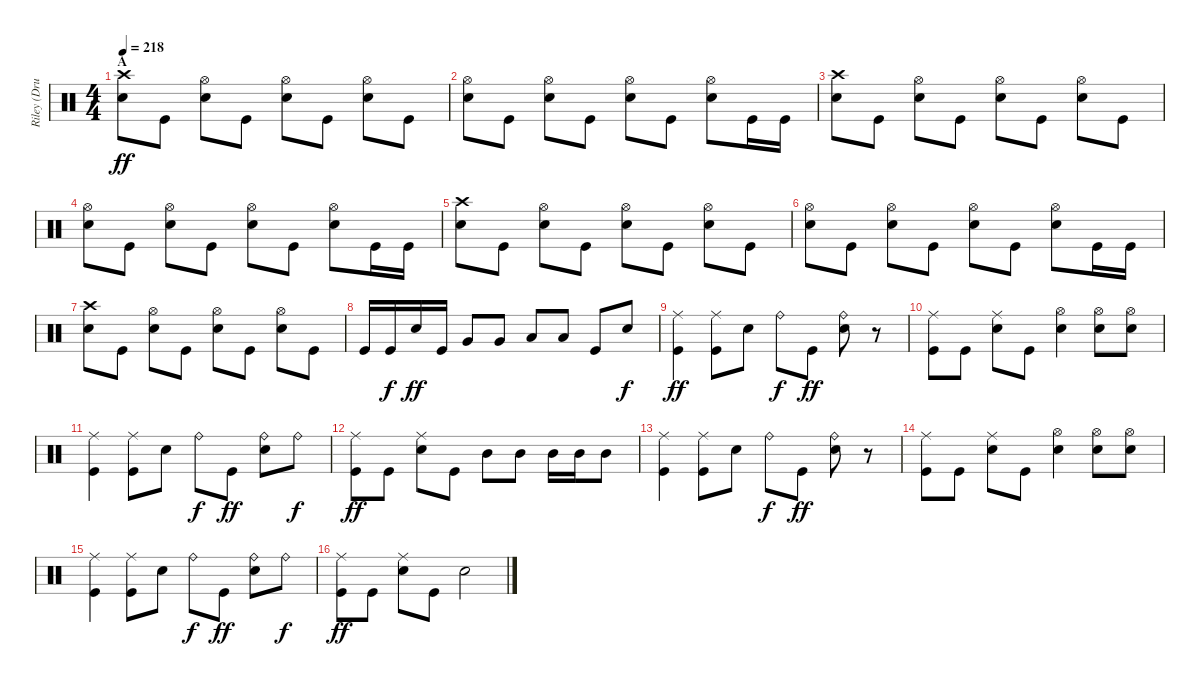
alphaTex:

\track ("Riley (Drums)" "Riley (Dru") {instrument percussion}
\staff {score}
\articulation defaults
\ts (4 4)
\section ("" "A")
\tempo 218
\clef neutral
\ks c
("Crash high (hit)" "Electric Snare (hit)").8{dy ff} "Kick (hit)".8 ("Hi-Hat (open)" "Electric Snare (hit)").8 "Kick (hit)".8 ("Hi-Hat (open)" "Electric Snare (hit)").8 "Kick (hit)".8 ("Hi-Hat (open)" "Electric Snare (hit)").8 "Kick (hit)".8 |
("Hi-Hat (open)" "Electric Snare (hit)").8 "Kick (hit)".8 ("Hi-Hat (open)" "Electric Snare (hit)").8 "Kick (hit)".8 ("Hi-Hat (open)" "Electric Snare (hit)").8 "Kick (hit)".8 ("Hi-Hat (open)" "Electric Snare (hit)").8 "Kick (hit)".16 "Kick (hit)".16 |
("Crash high (hit)" "Electric Snare (hit)").8 "Kick (hit)".8 ("Hi-Hat (open)" "Electric Snare (hit)").8 "Kick (hit)".8 ("Hi-Hat (open)" "Electric Snare (hit)").8 "Kick (hit)".8 ("Hi-Hat (open)" "Electric Snare (hit)").8 "Kick (hit)".8 |
("Hi-Hat (open)" "Electric Snare (hit)").8 "Kick (hit)".8 ("Hi-Hat (open)" "Electric Snare (hit)").8 "Kick (hit)".8 ("Hi-Hat (open)" "Electric Snare (hit)").8 "Kick (hit)".8 ("Hi-Hat (open)" "Electric Snare (hit)").8 "Kick (hit)".16 "Kick (hit)".16 |
("Crash high (hit)" "Electric Snare (hit)").8 "Kick (hit)".8 ("Hi-Hat (open)" "Electric Snare (hit)").8 "Kick (hit)".8 ("Hi-Hat (open)" "Electric Snare (hit)").8 "Kick (hit)".8 ("Hi-Hat (open)" "Electric Snare (hit)").8 "Kick (hit)".8 |
("Hi-Hat (open)" "Electric Snare (hit)").8 "Kick (hit)".8 ("Hi-Hat (open)" "Electric Snare (hit)").8 "Kick (hit)".8 ("Hi-Hat (open)" "Electric Snare (hit)").8 "Kick (hit)".8 ("Hi-Hat (open)" "Electric Snare (hit)").8 "Kick (hit)".16 "Kick (hit)".16 |
("Crash high (hit)" "Electric Snare (hit)").8 "Kick (hit)".8 ("Hi-Hat (open)" "Electric Snare (hit)").8 "Kick (hit)".8 ("Hi-Hat (open)" "Electric Snare (hit)").8 "Kick (hit)".8 ("Hi-Hat (open)" "Electric Snare (hit)").8 "Kick (hit)".8 |
"Kick (hit)".16 "Kick (hit)".16{dy f} "Electric Snare (hit)".16{dy ff} "Kick (hit)".16 "Very Low Tom (hit)".8 "Very Low Tom (hit)".8 "Low Floor Tom (hit)".8 "Low Floor Tom (hit)".8 "Kick (hit)".8 "Electric Snare (hit)".8{dy f} |
("Ride (middle)" "Kick (hit)").4{dy ff} ("Ride (middle)" "Kick (hit)").8 "Electric Snare (hit)".8 "Ride (bell)".8{dy f} "Kick (hit)".8{dy ff} ("Ride (bell)" "Electric Snare (hit)").8 r.8 |
("Ride (middle)" "Kick (hit)").8 "Kick (hit)".8 ("Ride (middle)" "Electric Snare (hit)").8 "Kick (hit)".8 ("Hi-Hat (open)" "Electric Snare (hit)").4 ("Hi-Hat (open)" "Electric Snare (hit)").8 ("Hi-Hat (open)" "Electric Snare (hit)").8 |
("Ride (middle)" "Kick (hit)").4 ("Ride (middle)" "Kick (hit)").8 "Electric Snare (hit)".8 "Ride (bell)".8{dy f} "Kick (hit)".8{dy ff} ("Ride (bell)" "Electric Snare (hit)").8 "Ride (bell)".8{dy f} |
("Ride (middle)" "Kick (hit)").8{dy ff} "Kick (hit)".8 ("Ride (middle)" "Electric Snare (hit)").8 "Kick (hit)".8 "Mid Tom (hit)".8 "Mid Tom (hit)".8 "Mid Tom (hit)".16 "Mid Tom (hit)".16 "Mid Tom (hit)".8 |
("Ride (middle)" "Kick (hit)").4 ("Ride (middle)" "Kick (hit)").8 "Electric Snare (hit)".8 "Ride (bell)".8{dy f} "Kick (hit)".8{dy ff} ("Ride (bell)" "Electric Snare (hit)").8 r.8 |
("Ride (middle)" "Kick (hit)").8 "Kick (hit)".8 ("Ride (middle)" "Electric Snare (hit)").8 "Kick (hit)".8 ("Hi-Hat (open)" "Electric Snare (hit)").4 ("Hi-Hat (open)" "Electric Snare (hit)").8 ("Hi-Hat (open)" "Electric Snare (hit)").8 |
("Ride (middle)" "Kick (hit)").4 ("Ride (middle)" "Kick (hit)").8 "Electric Snare (hit)".8 "Ride (bell)".8{dy f} "Kick (hit)".8{dy ff} ("Ride (bell)" "Electric Snare (hit)").8 "Ride (bell)".8{dy f} |
("Ride (middle)" "Kick (hit)").8{dy ff} "Kick (hit)".8 ("Ride (middle)" "Electric Snare (hit)").8 "Kick (hit)".8 "Electric Snare (hit)".2
